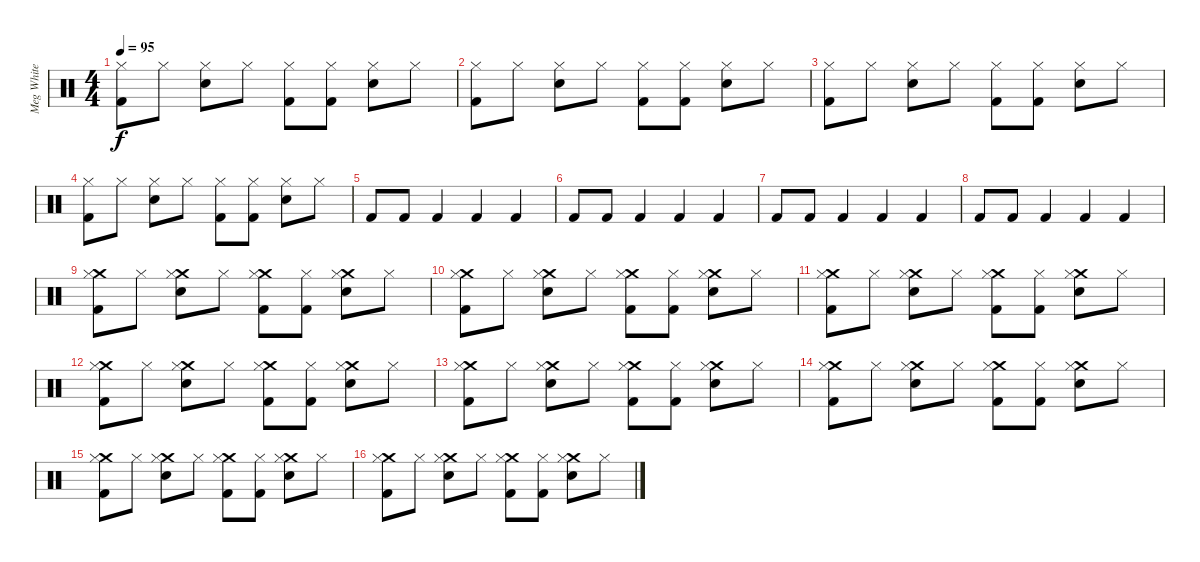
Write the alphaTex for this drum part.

\track ("Meg White - Drums" "Meg White ") {instrument percussion}
\staff {score}
\articulation defaults
\ts (4 4)
\tempo 95
\clef neutral
\ks c
("Hi-Hat (closed)" "Kick (hit) 2").8{dy f} "Hi-Hat (closed)".8 ("Snare (hit) 2" "Hi-Hat (closed)").8 "Hi-Hat (closed)".8 ("Hi-Hat (closed)" "Kick (hit) 2").8 ("Hi-Hat (closed)" "Kick (hit) 2").8 ("Snare (hit) 2" "Hi-Hat (closed)").8 "Hi-Hat (closed)".8 |
("Hi-Hat (closed)" "Kick (hit) 2").8 "Hi-Hat (closed)".8 ("Snare (hit) 2" "Hi-Hat (closed)").8 "Hi-Hat (closed)".8 ("Hi-Hat (closed)" "Kick (hit) 2").8 ("Hi-Hat (closed)" "Kick (hit) 2").8 ("Snare (hit) 2" "Hi-Hat (closed)").8 "Hi-Hat (closed)".8 |
("Hi-Hat (closed)" "Kick (hit) 2").8 "Hi-Hat (closed)".8 ("Snare (hit) 2" "Hi-Hat (closed)").8 "Hi-Hat (closed)".8 ("Hi-Hat (closed)" "Kick (hit) 2").8 ("Hi-Hat (closed)" "Kick (hit) 2").8 ("Snare (hit) 2" "Hi-Hat (closed)").8 "Hi-Hat (closed)".8 |
("Hi-Hat (closed)" "Kick (hit) 2").8 "Hi-Hat (closed)".8 ("Snare (hit) 2" "Hi-Hat (closed)").8 "Hi-Hat (closed)".8 ("Hi-Hat (closed)" "Kick (hit) 2").8 ("Hi-Hat (closed)" "Kick (hit) 2").8 ("Snare (hit) 2" "Hi-Hat (closed)").8 "Hi-Hat (closed)".8 |
"Kick (hit) 2".8 "Kick (hit) 2".8 "Kick (hit) 2".4 "Kick (hit) 2".4 "Kick (hit) 2".4 |
"Kick (hit) 2".8 "Kick (hit) 2".8 "Kick (hit) 2".4 "Kick (hit) 2".4 "Kick (hit) 2".4 |
"Kick (hit) 2".8 "Kick (hit) 2".8 "Kick (hit) 2".4 "Kick (hit) 2".4 "Kick (hit) 2".4 |
"Kick (hit) 2".8 "Kick (hit) 2".8 "Kick (hit) 2".4 "Kick (hit) 2".4 "Kick (hit) 2".4 |
("Crash medium (hit)" "Hi-Hat (closed)" "Kick (hit) 2").8 "Hi-Hat (closed)".8 ("Crash medium (hit)" "Snare (hit) 2" "Hi-Hat (closed)").8 "Hi-Hat (closed)".8 ("Crash medium (hit)" "Hi-Hat (closed)" "Kick (hit) 2").8 ("Hi-Hat (closed)" "Kick (hit) 2").8 ("Crash medium (hit)" "Snare (hit) 2" "Hi-Hat (closed)").8 "Hi-Hat (closed)".8 |
("Crash medium (hit)" "Hi-Hat (closed)" "Kick (hit) 2").8 "Hi-Hat (closed)".8 ("Crash medium (hit)" "Snare (hit) 2" "Hi-Hat (closed)").8 "Hi-Hat (closed)".8 ("Crash medium (hit)" "Hi-Hat (closed)" "Kick (hit) 2").8 ("Hi-Hat (closed)" "Kick (hit) 2").8 ("Crash medium (hit)" "Snare (hit) 2" "Hi-Hat (closed)").8 "Hi-Hat (closed)".8 |
("Crash medium (hit)" "Hi-Hat (closed)" "Kick (hit) 2").8 "Hi-Hat (closed)".8 ("Crash medium (hit)" "Snare (hit) 2" "Hi-Hat (closed)").8 "Hi-Hat (closed)".8 ("Crash medium (hit)" "Hi-Hat (closed)" "Kick (hit) 2").8 ("Hi-Hat (closed)" "Kick (hit) 2").8 ("Crash medium (hit)" "Snare (hit) 2" "Hi-Hat (closed)").8 "Hi-Hat (closed)".8 |
("Crash medium (hit)" "Hi-Hat (closed)" "Kick (hit) 2").8 "Hi-Hat (closed)".8 ("Crash medium (hit)" "Snare (hit) 2" "Hi-Hat (closed)").8 "Hi-Hat (closed)".8 ("Crash medium (hit)" "Hi-Hat (closed)" "Kick (hit) 2").8 ("Hi-Hat (closed)" "Kick (hit) 2").8 ("Crash medium (hit)" "Snare (hit) 2" "Hi-Hat (closed)").8 "Hi-Hat (closed)".8 |
("Crash medium (hit)" "Hi-Hat (closed)" "Kick (hit) 2").8 "Hi-Hat (closed)".8 ("Crash medium (hit)" "Snare (hit) 2" "Hi-Hat (closed)").8 "Hi-Hat (closed)".8 ("Crash medium (hit)" "Hi-Hat (closed)" "Kick (hit) 2").8 ("Hi-Hat (closed)" "Kick (hit) 2").8 ("Crash medium (hit)" "Snare (hit) 2" "Hi-Hat (closed)").8 "Hi-Hat (closed)".8 |
("Crash medium (hit)" "Hi-Hat (closed)" "Kick (hit) 2").8 "Hi-Hat (closed)".8 ("Crash medium (hit)" "Snare (hit) 2" "Hi-Hat (closed)").8 "Hi-Hat (closed)".8 ("Crash medium (hit)" "Hi-Hat (closed)" "Kick (hit) 2").8 ("Hi-Hat (closed)" "Kick (hit) 2").8 ("Crash medium (hit)" "Snare (hit) 2" "Hi-Hat (closed)").8 "Hi-Hat (closed)".8 |
("Crash medium (hit)" "Hi-Hat (closed)" "Kick (hit) 2").8 "Hi-Hat (closed)".8 ("Crash medium (hit)" "Snare (hit) 2" "Hi-Hat (closed)").8 "Hi-Hat (closed)".8 ("Crash medium (hit)" "Hi-Hat (closed)" "Kick (hit) 2").8 ("Hi-Hat (closed)" "Kick (hit) 2").8 ("Crash medium (hit)" "Snare (hit) 2" "Hi-Hat (closed)").8 "Hi-Hat (closed)".8 |
("Crash medium (hit)" "Hi-Hat (closed)" "Kick (hit) 2").8 "Hi-Hat (closed)".8 ("Crash medium (hit)" "Snare (hit) 2" "Hi-Hat (closed)").8 "Hi-Hat (closed)".8 ("Crash medium (hit)" "Hi-Hat (closed)" "Kick (hit) 2").8 ("Hi-Hat (closed)" "Kick (hit) 2").8 ("Crash medium (hit)" "Snare (hit) 2" "Hi-Hat (closed)").8 "Hi-Hat (closed)".8
